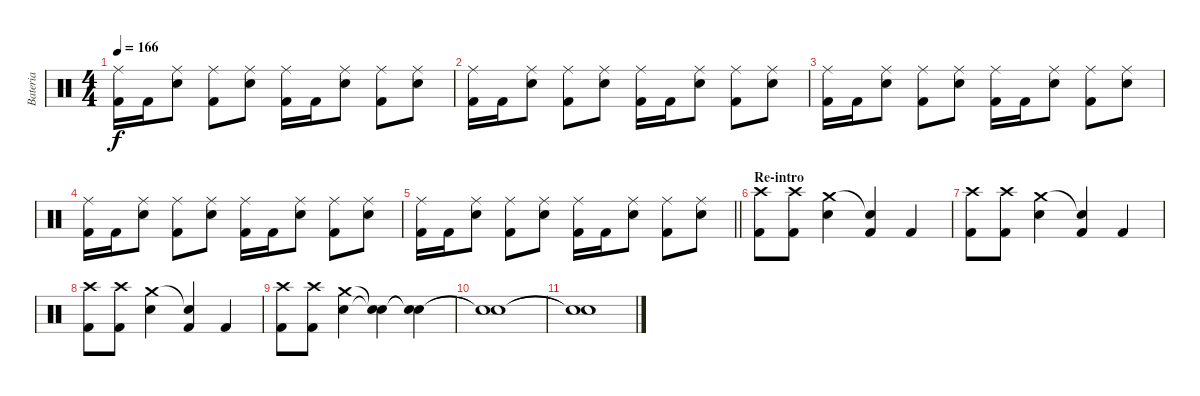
\track ("Bateria" "Bateria") {instrument percussion}
\staff {score}
\articulation defaults
\ts (4 4)
\tempo 166
\clef neutral
\ks c
("Ride (middle)" "Kick (hit) 2").16{dy f} "Kick (hit) 2".16 ("Ride (middle)" "Electric Snare (hit)").8 ("Ride (middle)" "Kick (hit) 2").8 ("Ride (middle)" "Electric Snare (hit)").8 ("Ride (middle)" "Kick (hit) 2").16 "Kick (hit) 2".16 ("Ride (middle)" "Electric Snare (hit)").8 ("Ride (middle)" "Kick (hit) 2").8 ("Ride (middle)" "Electric Snare (hit)").8 |
("Ride (middle)" "Kick (hit) 2").16 "Kick (hit) 2".16 ("Ride (middle)" "Electric Snare (hit)").8 ("Ride (middle)" "Kick (hit) 2").8 ("Ride (middle)" "Electric Snare (hit)").8 ("Ride (middle)" "Kick (hit) 2").16 "Kick (hit) 2".16 ("Ride (middle)" "Electric Snare (hit)").8 ("Ride (middle)" "Kick (hit) 2").8 ("Ride (middle)" "Electric Snare (hit)").8 |
("Ride (middle)" "Kick (hit) 2").16 "Kick (hit) 2".16 ("Ride (middle)" "Electric Snare (hit)").8 ("Ride (middle)" "Kick (hit) 2").8 ("Ride (middle)" "Electric Snare (hit)").8 ("Ride (middle)" "Kick (hit) 2").16 "Kick (hit) 2".16 ("Ride (middle)" "Electric Snare (hit)").8 ("Ride (middle)" "Kick (hit) 2").8 ("Ride (middle)" "Electric Snare (hit)").8 |
("Ride (middle)" "Kick (hit) 2").16 "Kick (hit) 2".16 ("Ride (middle)" "Electric Snare (hit)").8 ("Ride (middle)" "Kick (hit) 2").8 ("Ride (middle)" "Electric Snare (hit)").8 ("Ride (middle)" "Kick (hit) 2").16 "Kick (hit) 2".16 ("Ride (middle)" "Electric Snare (hit)").8 ("Ride (middle)" "Kick (hit) 2").8 ("Ride (middle)" "Electric Snare (hit)").8 |
\barLineRight lightlight
("Ride (middle)" "Kick (hit) 2").16 "Kick (hit) 2".16 ("Ride (middle)" "Electric Snare (hit)").8 ("Ride (middle)" "Kick (hit) 2").8 ("Ride (middle)" "Electric Snare (hit)").8 ("Ride (middle)" "Kick (hit) 2").16 "Kick (hit) 2".16 ("Ride (middle)" "Electric Snare (hit)").8 ("Ride (middle)" "Kick (hit) 2").8 ("Ride (middle)" "Electric Snare (hit)").8 |
\section ("" "Re-intro")
("Crash high (hit)" "Kick (hit) 2").8 ("Crash high (hit)" "Kick (hit) 2").8 ("Crash medium (hit)" "Electric Snare (hit)").4 ("Snare (hit)"{t} "Kick (hit) 2").4 "Kick (hit) 2".4 |
("Crash high (hit)" "Kick (hit) 2").8 ("Crash high (hit)" "Kick (hit) 2").8 ("Crash medium (hit)" "Electric Snare (hit)").4 ("Snare (hit)"{t} "Kick (hit) 2").4 "Kick (hit) 2".4 |
("Crash high (hit)" "Kick (hit) 2").8 ("Crash high (hit)" "Kick (hit) 2").8 ("Crash medium (hit)" "Electric Snare (hit)").4 ("Snare (hit)"{t} "Kick (hit) 2").4 "Kick (hit) 2".4 |
("Crash high (hit)" "Kick (hit) 2").8 ("Crash high (hit)" "Kick (hit) 2").8 ("Crash medium (hit)" "Electric Snare (hit)").4 ("Snare (hit)"{t} "Snare (hit)"{t}).4 ("Snare (hit)"{t} "Snare (hit)"{t}).4 |
("Snare (hit)"{t} "Snare (hit)"{t}).1 |
("Snare (hit)"{t} "Snare (hit)"{t}).1
